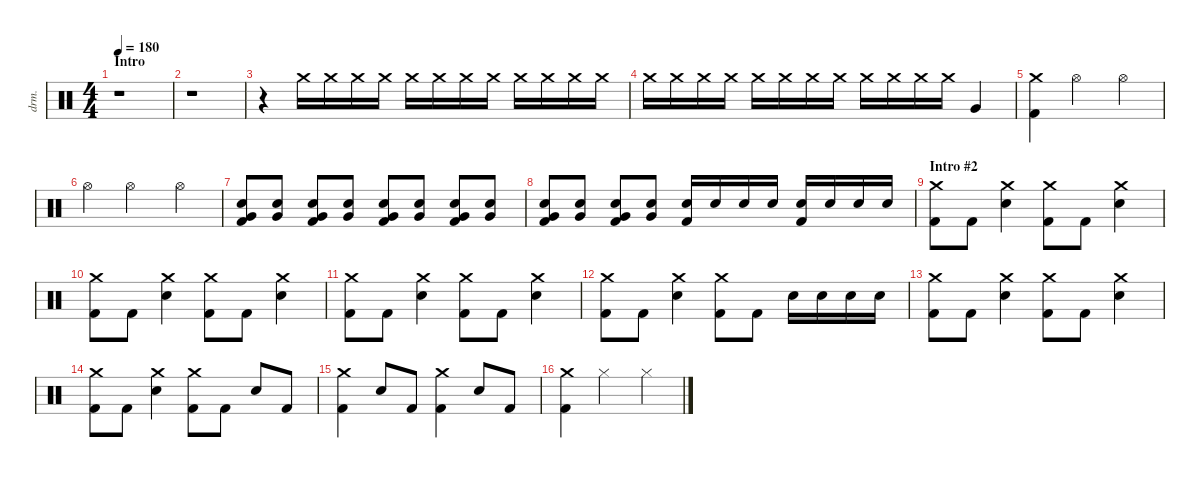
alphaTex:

\defaultSystemsLayout 4
\hideDynamics
\bracketExtendMode nobrackets
\otherSystemsTrackNameOrientation horizontal
\track ("Drums" "drm.") {instrument percussion}
\staff {score}
\articulation defaults
\ts (4 4)
\section ("" "Intro")
\tempo 180
\clef neutral
\ks c
r.1{dy ppp beam Down} |
r.1{beam Down} |
r.4{beam Down} "Crash medium (hit)".16{beam Down} "Crash medium (hit)".16{beam Down} "Crash medium (hit)".16{beam Down} "Crash medium (hit)".16{beam Down} "Crash medium (hit)".16{dy pp beam Down} "Crash medium (hit)".16{beam Down} "Crash medium (hit)".16{beam Down} "Crash medium (hit)".16{beam Down} "Crash medium (hit)".16{dy p beam Down} "Crash medium (hit)".16{beam Down} "Crash medium (hit)".16{beam Down} "Crash medium (hit)".16{beam Down} |
"Crash medium (hit)".16{dy mp beam Down} "Crash medium (hit)".16{beam Down} "Crash medium (hit)".16{beam Down} "Crash medium (hit)".16{beam Down} "Crash medium (hit)".16{dy mf beam Down} "Crash medium (hit)".16{beam Down} "Crash medium (hit)".16{beam Down} "Crash medium (hit)".16{beam Down} "Crash medium (hit)".16{dy f beam Down} "Crash medium (hit)".16{beam Down} "Crash medium (hit)".16{beam Down} "Crash medium (hit)".16{beam Down} "Very Low Tom (hit)".4{dy fff beam Up} |
("Crash medium (hit)" "Kick (hit) 2").4{dy f beam Down} "Hi-Hat (open)".2{beam Down} "Hi-Hat (open)".4{beam Down} |
"Hi-Hat (open)".4{beam Down} "Hi-Hat (open)".2{beam Down} "Hi-Hat (open)".4{beam Down} |
("Very Low Tom (hit)" "Snare (hit) 2" "Kick (hit) 2").8{beam Up} ("Very Low Tom (hit)" "Snare (hit) 2").8{beam Up} ("Very Low Tom (hit)" "Snare (hit) 2" "Kick (hit) 2").8{beam Up} ("Very Low Tom (hit)" "Snare (hit) 2").8{beam Up} ("Very Low Tom (hit)" "Snare (hit) 2" "Kick (hit) 2").8{beam Up} ("Very Low Tom (hit)" "Snare (hit) 2").8{beam Up} ("Very Low Tom (hit)" "Snare (hit) 2" "Kick (hit) 2").8{beam Up} ("Very Low Tom (hit)" "Snare (hit) 2").8{beam Up} |
("Very Low Tom (hit)" "Snare (hit) 2" "Kick (hit) 2").8{beam Up} ("Very Low Tom (hit)" "Snare (hit) 2").8{beam Up} ("Very Low Tom (hit)" "Snare (hit) 2" "Kick (hit) 2").8{beam Up} ("Very Low Tom (hit)" "Snare (hit) 2").8{beam Up} ("Snare (hit) 2" "Kick (hit) 2").16{beam Up} "Snare (hit) 2".16{beam Up} "Snare (hit) 2".16{beam Up} "Snare (hit) 2".16{beam Up} ("Snare (hit) 2" "Kick (hit) 2").16{beam Up} "Snare (hit) 2".16{beam Up} "Snare (hit) 2".16{beam Up} "Snare (hit) 2".16{beam Up} |
\section ("" "Intro #2")
("Crash medium (hit)" "Kick (hit) 2").8{beam Down} "Kick (hit) 2".8{beam Down} ("Crash medium (hit)" "Snare (hit) 2").4{beam Down} ("Crash medium (hit)" "Kick (hit) 2").8{beam Down} "Kick (hit) 2".8{beam Down} ("Crash medium (hit)" "Snare (hit) 2").4{beam Down} |
("Crash medium (hit)" "Kick (hit) 2").8{beam Down} "Kick (hit) 2".8{beam Down} ("Crash medium (hit)" "Snare (hit) 2").4{beam Down} ("Crash medium (hit)" "Kick (hit) 2").8{beam Down} "Kick (hit) 2".8{beam Down} ("Crash medium (hit)" "Snare (hit) 2").4{beam Down} |
("Crash medium (hit)" "Kick (hit) 2").8{beam Down} "Kick (hit) 2".8{beam Down} ("Crash medium (hit)" "Snare (hit) 2").4{beam Down} ("Crash medium (hit)" "Kick (hit) 2").8{beam Down} "Kick (hit) 2".8{beam Down} ("Crash medium (hit)" "Snare (hit) 2").4{beam Down} |
("Crash medium (hit)" "Kick (hit) 2").8{beam Down} "Kick (hit) 2".8{beam Down} ("Crash medium (hit)" "Snare (hit) 2").4{beam Down} ("Crash medium (hit)" "Kick (hit) 2").8{beam Down} "Kick (hit) 2".8{beam Down} "Snare (hit) 2".16{beam Down} "Snare (hit) 2".16{beam Down} "Snare (hit) 2".16{beam Down} "Snare (hit) 2".16{beam Down} |
("Crash medium (hit)" "Kick (hit) 2").8{beam Down} "Kick (hit) 2".8{beam Down} ("Crash medium (hit)" "Snare (hit) 2").4{beam Down} ("Crash medium (hit)" "Kick (hit) 2").8{beam Down} "Kick (hit) 2".8{beam Down} ("Crash medium (hit)" "Snare (hit) 2").4{beam Down} |
("Crash medium (hit)" "Kick (hit) 2").8{beam Down} "Kick (hit) 2".8{beam Down} ("Crash medium (hit)" "Snare (hit) 2").4{beam Down} ("Crash medium (hit)" "Kick (hit) 2").8{beam Down} "Kick (hit) 2".8{beam Down} "Snare (hit) 2".8{beam Up} "Kick (hit) 2".8{beam Up} |
("Crash medium (hit)" "Kick (hit) 2").4{beam Down} "Snare (hit) 2".8{beam Up} "Kick (hit) 2".8{beam Up} ("Crash medium (hit)" "Kick (hit) 2").4{beam Down} "Snare (hit) 2".8{beam Up} "Kick (hit) 2".8{beam Up} |
("Crash medium (hit)" "Kick (hit) 2").4{beam Down} "Hi-Hat (closed)".2{beam Down} "Hi-Hat (closed)".4{beam Down}
